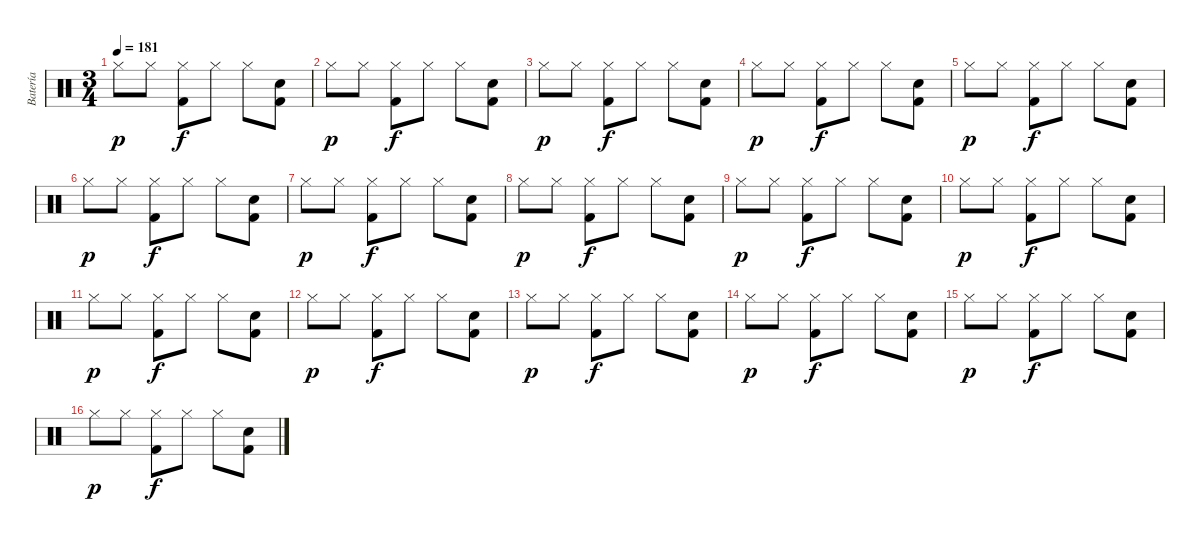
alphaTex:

\track ("Batería" "Batería") {instrument percussion}
\staff {score}
\articulation defaults
\ts (3 4)
\tempo 181
\clef neutral
\ks c "Hi-Hat (closed)".8{dy p} "Hi-Hat (closed)".8
("Hi-Hat (closed)" "Kick (hit) 2").8{dy f} "Hi-Hat (closed)".8 "Hi-Hat (closed)".8 ("Electric Snare (hit)" "Kick (hit) 2").8 |
"Hi-Hat (closed)".8{dy p} "Hi-Hat (closed)".8 ("Hi-Hat (closed)" "Kick (hit) 2").8{dy f} "Hi-Hat (closed)".8 "Hi-Hat (closed)".8 ("Electric Snare (hit)" "Kick (hit) 2").8 |
"Hi-Hat (closed)".8{dy p} "Hi-Hat (closed)".8 ("Hi-Hat (closed)" "Kick (hit) 2").8{dy f} "Hi-Hat (closed)".8 "Hi-Hat (closed)".8 ("Electric Snare (hit)" "Kick (hit) 2").8 |
"Hi-Hat (closed)".8{dy p} "Hi-Hat (closed)".8 ("Hi-Hat (closed)" "Kick (hit) 2").8{dy f} "Hi-Hat (closed)".8 "Hi-Hat (closed)".8 ("Electric Snare (hit)" "Kick (hit) 2").8 |
"Hi-Hat (closed)".8{dy p} "Hi-Hat (closed)".8 ("Hi-Hat (closed)" "Kick (hit) 2").8{dy f} "Hi-Hat (closed)".8 "Hi-Hat (closed)".8 ("Electric Snare (hit)" "Kick (hit) 2").8 |
"Hi-Hat (closed)".8{dy p} "Hi-Hat (closed)".8 ("Hi-Hat (closed)" "Kick (hit) 2").8{dy f} "Hi-Hat (closed)".8 "Hi-Hat (closed)".8 ("Electric Snare (hit)" "Kick (hit) 2").8 |
"Hi-Hat (closed)".8{dy p} "Hi-Hat (closed)".8 ("Hi-Hat (closed)" "Kick (hit) 2").8{dy f} "Hi-Hat (closed)".8 "Hi-Hat (closed)".8 ("Electric Snare (hit)" "Kick (hit) 2").8 |
"Hi-Hat (closed)".8{dy p} "Hi-Hat (closed)".8 ("Hi-Hat (closed)" "Kick (hit) 2").8{dy f} "Hi-Hat (closed)".8 "Hi-Hat (closed)".8 ("Electric Snare (hit)" "Kick (hit) 2").8 |
"Hi-Hat (closed)".8{dy p} "Hi-Hat (closed)".8 ("Hi-Hat (closed)" "Kick (hit) 2").8{dy f} "Hi-Hat (closed)".8 "Hi-Hat (closed)".8 ("Electric Snare (hit)" "Kick (hit) 2").8 |
"Hi-Hat (closed)".8{dy p} "Hi-Hat (closed)".8 ("Hi-Hat (closed)" "Kick (hit) 2").8{dy f} "Hi-Hat (closed)".8 "Hi-Hat (closed)".8 ("Electric Snare (hit)" "Kick (hit) 2").8 |
"Hi-Hat (closed)".8{dy p} "Hi-Hat (closed)".8 ("Hi-Hat (closed)" "Kick (hit) 2").8{dy f} "Hi-Hat (closed)".8 "Hi-Hat (closed)".8 ("Electric Snare (hit)" "Kick (hit) 2").8 |
"Hi-Hat (closed)".8{dy p} "Hi-Hat (closed)".8 ("Hi-Hat (closed)" "Kick (hit) 2").8{dy f} "Hi-Hat (closed)".8 "Hi-Hat (closed)".8 ("Electric Snare (hit)" "Kick (hit) 2").8 |
"Hi-Hat (closed)".8{dy p} "Hi-Hat (closed)".8 ("Hi-Hat (closed)" "Kick (hit) 2").8{dy f} "Hi-Hat (closed)".8 "Hi-Hat (closed)".8 ("Electric Snare (hit)" "Kick (hit) 2").8 |
"Hi-Hat (closed)".8{dy p} "Hi-Hat (closed)".8 ("Hi-Hat (closed)" "Kick (hit) 2").8{dy f} "Hi-Hat (closed)".8 "Hi-Hat (closed)".8 ("Electric Snare (hit)" "Kick (hit) 2").8 |
"Hi-Hat (closed)".8{dy p} "Hi-Hat (closed)".8 ("Hi-Hat (closed)" "Kick (hit) 2").8{dy f} "Hi-Hat (closed)".8 "Hi-Hat (closed)".8 ("Electric Snare (hit)" "Kick (hit) 2").8 |
"Hi-Hat (closed)".8{dy p} "Hi-Hat (closed)".8 ("Hi-Hat (closed)" "Kick (hit) 2").8{dy f} "Hi-Hat (closed)".8 "Hi-Hat (closed)".8 ("Electric Snare (hit)" "Kick (hit) 2").8
